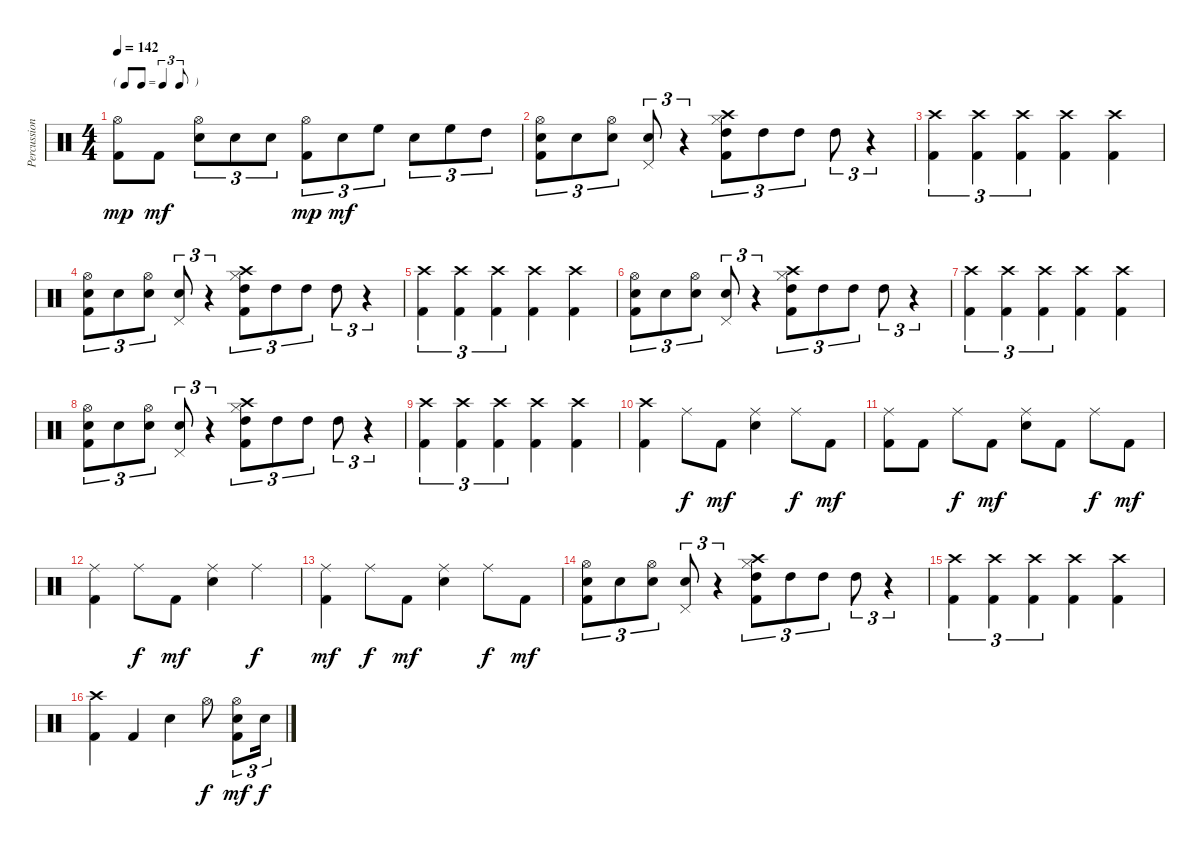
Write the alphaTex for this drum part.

\track ("Percussion" "Percussion") {instrument percussion}
\staff {score}
\articulation defaults
\ts (4 4)
\tf triplet8th
\tempo 142
\clef neutral
\ks c
("Hi-Hat (open)" "Kick (hit) 2").8{dy mp} "Kick (hit) 2".8{dy mf} ("Hi-Hat (open)" "Electric Snare (hit)").8{tu (3 2)} "Electric Snare (hit)".8{tu (3 2)} "Electric Snare (hit)".8{tu (3 2)} ("Hi-Hat (open)" "Kick (hit) 2").8{tu (3 2) dy mp} "Electric Snare (hit)".8{tu (3 2) dy mf} "High Floor Tom (hit)".8{tu (3 2)} "Electric Snare (hit)".8{tu (3 2)} "High Floor Tom (hit)".8{tu (3 2)} "High Tom (hit)".8{tu (3 2)} |
("Hi-Hat (open)" "Electric Snare (hit)" "Kick (hit) 2").8{tu (3 2)} "Electric Snare (hit)".8{tu (3 2)} ("Hi-Hat (open)" "Electric Snare (hit)").8{tu (3 2)} ("Pedal Hi-Hat (hit)" "Electric Snare (hit)").8{tu (3 2)} r.4{tu (3 2)} ("Crash high (hit)" "Hi-Hat (closed)" "High Tom (hit)" "Kick (hit) 2").8{tu (3 2)} "High Tom (hit)".8{tu (3 2)} "High Tom (hit)".8{tu (3 2)} "High Tom (hit)".8{tu (3 2)} r.4{tu (3 2)} |
("Crash high (hit)" "Kick (hit) 2").4{tu (3 2)} ("Crash high (hit)" "Kick (hit) 2").4{tu (3 2)} ("Crash high (hit)" "Kick (hit) 2").4{tu (3 2)} ("Crash high (hit)" "Kick (hit) 2").4 ("Crash high (hit)" "Kick (hit) 2").4 |
("Hi-Hat (open)" "Electric Snare (hit)" "Kick (hit) 2").8{tu (3 2)} "Electric Snare (hit)".8{tu (3 2)} ("Hi-Hat (open)" "Electric Snare (hit)").8{tu (3 2)} ("Pedal Hi-Hat (hit)" "Electric Snare (hit)").8{tu (3 2)} r.4{tu (3 2)} ("Crash high (hit)" "Hi-Hat (closed)" "High Tom (hit)" "Kick (hit) 2").8{tu (3 2)} "High Tom (hit)".8{tu (3 2)} "High Tom (hit)".8{tu (3 2)} "High Tom (hit)".8{tu (3 2)} r.4{tu (3 2)} |
("Crash high (hit)" "Kick (hit) 2").4{tu (3 2)} ("Crash high (hit)" "Kick (hit) 2").4{tu (3 2)} ("Crash high (hit)" "Kick (hit) 2").4{tu (3 2)} ("Crash high (hit)" "Kick (hit) 2").4 ("Crash high (hit)" "Kick (hit) 2").4 |
("Hi-Hat (open)" "Electric Snare (hit)" "Kick (hit) 2").8{tu (3 2)} "Electric Snare (hit)".8{tu (3 2)} ("Hi-Hat (open)" "Electric Snare (hit)").8{tu (3 2)} ("Pedal Hi-Hat (hit)" "Electric Snare (hit)").8{tu (3 2)} r.4{tu (3 2)} ("Crash high (hit)" "Hi-Hat (closed)" "High Tom (hit)" "Kick (hit) 2").8{tu (3 2)} "High Tom (hit)".8{tu (3 2)} "High Tom (hit)".8{tu (3 2)} "High Tom (hit)".8{tu (3 2)} r.4{tu (3 2)} |
("Crash high (hit)" "Kick (hit) 2").4{tu (3 2)} ("Crash high (hit)" "Kick (hit) 2").4{tu (3 2)} ("Crash high (hit)" "Kick (hit) 2").4{tu (3 2)} ("Crash high (hit)" "Kick (hit) 2").4 ("Crash high (hit)" "Kick (hit) 2").4 |
("Hi-Hat (open)" "Electric Snare (hit)" "Kick (hit) 2").8{tu (3 2)} "Electric Snare (hit)".8{tu (3 2)} ("Hi-Hat (open)" "Electric Snare (hit)").8{tu (3 2)} ("Pedal Hi-Hat (hit)" "Electric Snare (hit)").8{tu (3 2)} r.4{tu (3 2)} ("Crash high (hit)" "Hi-Hat (closed)" "High Tom (hit)" "Kick (hit) 2").8{tu (3 2)} "High Tom (hit)".8{tu (3 2)} "High Tom (hit)".8{tu (3 2)} "High Tom (hit)".8{tu (3 2)} r.4{tu (3 2)} |
("Crash high (hit)" "Kick (hit) 2").4{tu (3 2)} ("Crash high (hit)" "Kick (hit) 2").4{tu (3 2)} ("Crash high (hit)" "Kick (hit) 2").4{tu (3 2)} ("Crash high (hit)" "Kick (hit) 2").4 ("Crash high (hit)" "Kick (hit) 2").4 |
("Crash high (hit)" "Kick (hit) 2").4 "Ride (middle)".8{dy f} "Kick (hit) 2".8{dy mf} ("Ride (middle)" "Electric Snare (hit)").4 "Ride (middle)".8{dy f} "Kick (hit) 2".8{dy mf} |
("Ride (middle)" "Kick (hit) 2").8 "Kick (hit) 2".8 "Ride (middle)".8{dy f} "Kick (hit) 2".8{dy mf} ("Ride (middle)" "Electric Snare (hit)").8 "Kick (hit) 2".8 "Ride (middle)".8{dy f} "Kick (hit) 2".8{dy mf} |
("Ride (middle)" "Kick (hit) 2").4 "Ride (middle)".8{dy f} "Kick (hit) 2".8{dy mf} ("Ride (middle)" "Electric Snare (hit)").4 "Ride (middle)".4{dy f} |
("Ride (middle)" "Kick (hit) 2").4{dy mf} "Ride (middle)".8{dy f} "Kick (hit) 2".8{dy mf} ("Ride (middle)" "Electric Snare (hit)").4 "Ride (middle)".8{dy f} "Kick (hit) 2".8{dy mf} |
("Hi-Hat (open)" "Electric Snare (hit)" "Kick (hit) 2").8{tu (3 2)} "Electric Snare (hit)".8{tu (3 2)} ("Hi-Hat (open)" "Electric Snare (hit)").8{tu (3 2)} ("Pedal Hi-Hat (hit)" "Electric Snare (hit)").8{tu (3 2)} r.4{tu (3 2)} ("Crash high (hit)" "Hi-Hat (closed)" "High Tom (hit)" "Kick (hit) 2").8{tu (3 2)} "High Tom (hit)".8{tu (3 2)} "High Tom (hit)".8{tu (3 2)} "High Tom (hit)".8{tu (3 2)} r.4{tu (3 2)} |
("Crash high (hit)" "Kick (hit) 2").4{tu (3 2)} ("Crash high (hit)" "Kick (hit) 2").4{tu (3 2)} ("Crash high (hit)" "Kick (hit) 2").4{tu (3 2)} ("Crash high (hit)" "Kick (hit) 2").4 ("Crash high (hit)" "Kick (hit) 2").4 |
("Crash high (hit)" "Kick (hit) 2").4 "Kick (hit) 2".4 "Electric Snare (hit)".4 "Hi-Hat (open)".8{dy f} ("Hi-Hat (open)" "Electric Snare (hit)" "Kick (hit) 2").8{tu (3 2) dy mf} "Electric Snare (hit)".16{tu (3 2) dy f}
